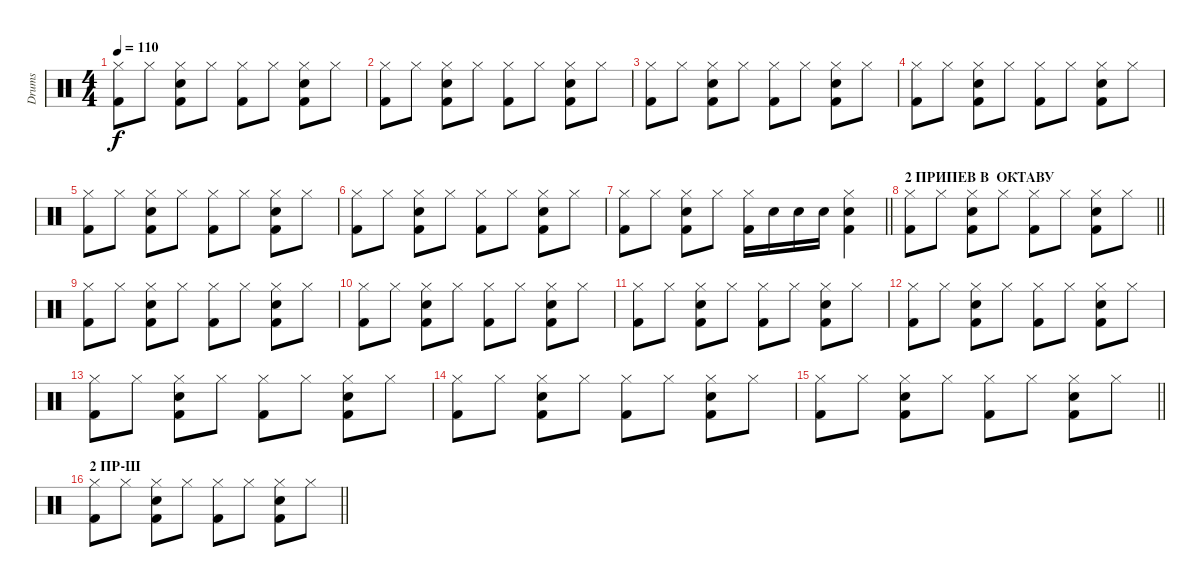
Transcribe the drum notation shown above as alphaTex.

\track ("Drums" "Drums") {instrument percussion}
\staff {score}
\articulation defaults
\ts (4 4)
\tempo 110
\clef neutral
\ks c
("Hi-Hat (closed)" "Kick (hit) 2").8{dy f} "Hi-Hat (closed)".8 ("Hi-Hat (closed)" "Snare (hit) 2" "Kick (hit) 2").8 "Hi-Hat (closed)".8 ("Hi-Hat (closed)" "Kick (hit) 2").8 "Hi-Hat (closed)".8 ("Hi-Hat (closed)" "Snare (hit) 2" "Kick (hit) 2").8 "Hi-Hat (closed)".8 |
("Hi-Hat (closed)" "Kick (hit) 2").8 "Hi-Hat (closed)".8 ("Hi-Hat (closed)" "Snare (hit) 2" "Kick (hit) 2").8 "Hi-Hat (closed)".8 ("Hi-Hat (closed)" "Kick (hit) 2").8 "Hi-Hat (closed)".8 ("Hi-Hat (closed)" "Snare (hit) 2" "Kick (hit) 2").8 "Hi-Hat (closed)".8 |
("Hi-Hat (closed)" "Kick (hit) 2").8 "Hi-Hat (closed)".8 ("Hi-Hat (closed)" "Snare (hit) 2" "Kick (hit) 2").8 "Hi-Hat (closed)".8 ("Hi-Hat (closed)" "Kick (hit) 2").8 "Hi-Hat (closed)".8 ("Hi-Hat (closed)" "Snare (hit) 2" "Kick (hit) 2").8 "Hi-Hat (closed)".8 |
("Hi-Hat (closed)" "Kick (hit) 2").8 "Hi-Hat (closed)".8 ("Hi-Hat (closed)" "Snare (hit) 2" "Kick (hit) 2").8 "Hi-Hat (closed)".8 ("Hi-Hat (closed)" "Kick (hit) 2").8 "Hi-Hat (closed)".8 ("Hi-Hat (closed)" "Snare (hit) 2" "Kick (hit) 2").8 "Hi-Hat (closed)".8 |
("Hi-Hat (closed)" "Kick (hit) 2").8 "Hi-Hat (closed)".8 ("Hi-Hat (closed)" "Snare (hit) 2" "Kick (hit) 2").8 "Hi-Hat (closed)".8 ("Hi-Hat (closed)" "Kick (hit) 2").8 "Hi-Hat (closed)".8 ("Hi-Hat (closed)" "Snare (hit) 2" "Kick (hit) 2").8 "Hi-Hat (closed)".8 |
("Hi-Hat (closed)" "Kick (hit) 2").8 "Hi-Hat (closed)".8 ("Hi-Hat (closed)" "Snare (hit) 2" "Kick (hit) 2").8 "Hi-Hat (closed)".8 ("Hi-Hat (closed)" "Kick (hit) 2").8 "Hi-Hat (closed)".8 ("Hi-Hat (closed)" "Snare (hit) 2" "Kick (hit) 2").8 "Hi-Hat (closed)".8 |
\barLineRight lightlight
("Hi-Hat (closed)" "Kick (hit) 2").8 "Hi-Hat (closed)".8 ("Hi-Hat (closed)" "Snare (hit) 2" "Kick (hit) 2").8 "Hi-Hat (closed)".8 ("Hi-Hat (closed)" "Kick (hit) 2").16 "Snare (hit) 2".16 "Snare (hit) 2".16 "Snare (hit) 2".16 ("Hi-Hat (closed)" "Snare (hit) 2" "Kick (hit) 2").4 |
\section ("" "2 ПРИПЕВ В  ОКТАВУ")
\barLineRight lightlight
("Hi-Hat (closed)" "Kick (hit) 2").8 "Hi-Hat (closed)".8 ("Hi-Hat (closed)" "Snare (hit) 2" "Kick (hit) 2").8 "Hi-Hat (closed)".8 ("Hi-Hat (closed)" "Kick (hit) 2").8 "Hi-Hat (closed)".8 ("Hi-Hat (closed)" "Snare (hit) 2" "Kick (hit) 2").8 "Hi-Hat (closed)".8 |
("Hi-Hat (closed)" "Kick (hit) 2").8 "Hi-Hat (closed)".8 ("Hi-Hat (closed)" "Snare (hit) 2" "Kick (hit) 2").8 "Hi-Hat (closed)".8 ("Hi-Hat (closed)" "Kick (hit) 2").8 "Hi-Hat (closed)".8 ("Hi-Hat (closed)" "Snare (hit) 2" "Kick (hit) 2").8 "Hi-Hat (closed)".8 |
("Hi-Hat (closed)" "Kick (hit) 2").8 "Hi-Hat (closed)".8 ("Hi-Hat (closed)" "Snare (hit) 2" "Kick (hit) 2").8 "Hi-Hat (closed)".8 ("Hi-Hat (closed)" "Kick (hit) 2").8 "Hi-Hat (closed)".8 ("Hi-Hat (closed)" "Snare (hit) 2" "Kick (hit) 2").8 "Hi-Hat (closed)".8 |
("Hi-Hat (closed)" "Kick (hit) 2").8 "Hi-Hat (closed)".8 ("Hi-Hat (closed)" "Snare (hit) 2" "Kick (hit) 2").8 "Hi-Hat (closed)".8 ("Hi-Hat (closed)" "Kick (hit) 2").8 "Hi-Hat (closed)".8 ("Hi-Hat (closed)" "Snare (hit) 2" "Kick (hit) 2").8 "Hi-Hat (closed)".8 |
("Hi-Hat (closed)" "Kick (hit) 2").8 "Hi-Hat (closed)".8 ("Hi-Hat (closed)" "Snare (hit) 2" "Kick (hit) 2").8 "Hi-Hat (closed)".8 ("Hi-Hat (closed)" "Kick (hit) 2").8 "Hi-Hat (closed)".8 ("Hi-Hat (closed)" "Snare (hit) 2" "Kick (hit) 2").8 "Hi-Hat (closed)".8 |
("Hi-Hat (closed)" "Kick (hit) 2").8 "Hi-Hat (closed)".8 ("Hi-Hat (closed)" "Snare (hit) 2" "Kick (hit) 2").8 "Hi-Hat (closed)".8 ("Hi-Hat (closed)" "Kick (hit) 2").8 "Hi-Hat (closed)".8 ("Hi-Hat (closed)" "Snare (hit) 2" "Kick (hit) 2").8 "Hi-Hat (closed)".8 |
("Hi-Hat (closed)" "Kick (hit) 2").8 "Hi-Hat (closed)".8 ("Hi-Hat (closed)" "Snare (hit) 2" "Kick (hit) 2").8 "Hi-Hat (closed)".8 ("Hi-Hat (closed)" "Kick (hit) 2").8 "Hi-Hat (closed)".8 ("Hi-Hat (closed)" "Snare (hit) 2" "Kick (hit) 2").8 "Hi-Hat (closed)".8 |
\barLineRight lightlight
("Hi-Hat (closed)" "Kick (hit) 2").8 "Hi-Hat (closed)".8 ("Hi-Hat (closed)" "Snare (hit) 2" "Kick (hit) 2").8 "Hi-Hat (closed)".8 ("Hi-Hat (closed)" "Kick (hit) 2").8 "Hi-Hat (closed)".8 ("Hi-Hat (closed)" "Snare (hit) 2" "Kick (hit) 2").8 "Hi-Hat (closed)".8 |
\section ("" "2 ПР-Ш")
\barLineRight lightlight
("Hi-Hat (closed)" "Kick (hit) 2").8 "Hi-Hat (closed)".8 ("Hi-Hat (closed)" "Snare (hit) 2" "Kick (hit) 2").8 "Hi-Hat (closed)".8 ("Hi-Hat (closed)" "Kick (hit) 2").8 "Hi-Hat (closed)".8 ("Hi-Hat (closed)" "Snare (hit) 2" "Kick (hit) 2").8 "Hi-Hat (closed)".8
